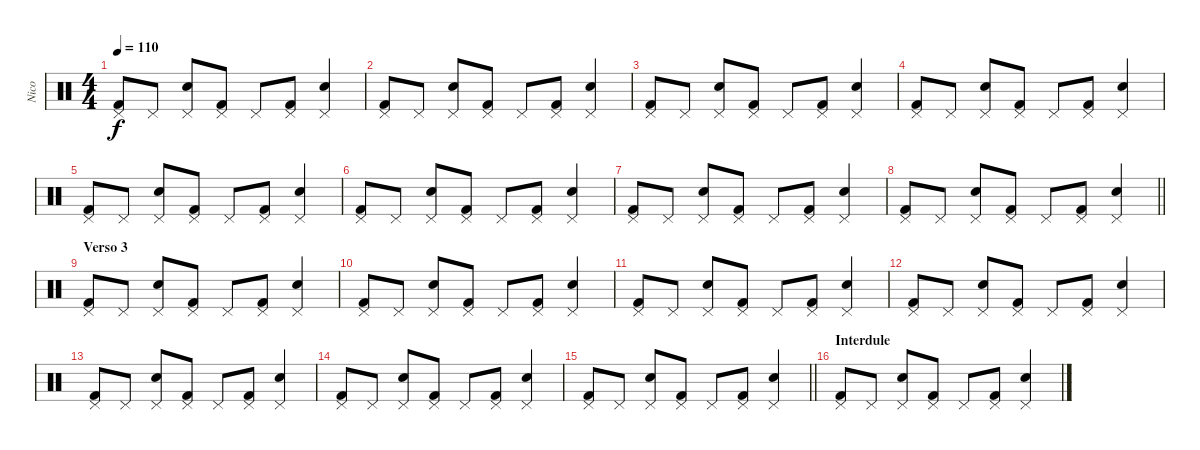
\track ("Nico" "Nico") {instrument percussion}
\staff {score}
\articulation defaults
\ts (4 4)
\tempo 110
\clef neutral
\ks c
("Pedal Hi-Hat (hit)" "Kick (hit) 2").8{dy f} "Pedal Hi-Hat (hit)".8 ("Pedal Hi-Hat (hit)" "Snare (hit) 2").8 ("Pedal Hi-Hat (hit)" "Kick (hit) 2").8 "Pedal Hi-Hat (hit)".8 ("Pedal Hi-Hat (hit)" "Kick (hit) 2").8 ("Pedal Hi-Hat (hit)" "Snare (hit) 2").4 |
("Pedal Hi-Hat (hit)" "Kick (hit) 2").8 "Pedal Hi-Hat (hit)".8 ("Pedal Hi-Hat (hit)" "Snare (hit) 2").8 ("Pedal Hi-Hat (hit)" "Kick (hit) 2").8 "Pedal Hi-Hat (hit)".8 ("Pedal Hi-Hat (hit)" "Kick (hit) 2").8 ("Pedal Hi-Hat (hit)" "Snare (hit) 2").4 |
("Pedal Hi-Hat (hit)" "Kick (hit) 2").8 "Pedal Hi-Hat (hit)".8 ("Pedal Hi-Hat (hit)" "Snare (hit) 2").8 ("Pedal Hi-Hat (hit)" "Kick (hit) 2").8 "Pedal Hi-Hat (hit)".8 ("Pedal Hi-Hat (hit)" "Kick (hit) 2").8 ("Pedal Hi-Hat (hit)" "Snare (hit) 2").4 |
("Pedal Hi-Hat (hit)" "Kick (hit) 2").8 "Pedal Hi-Hat (hit)".8 ("Pedal Hi-Hat (hit)" "Snare (hit) 2").8 ("Pedal Hi-Hat (hit)" "Kick (hit) 2").8 "Pedal Hi-Hat (hit)".8 ("Pedal Hi-Hat (hit)" "Kick (hit) 2").8 ("Pedal Hi-Hat (hit)" "Snare (hit) 2").4 |
("Pedal Hi-Hat (hit)" "Kick (hit) 2").8 "Pedal Hi-Hat (hit)".8 ("Pedal Hi-Hat (hit)" "Snare (hit) 2").8 ("Pedal Hi-Hat (hit)" "Kick (hit) 2").8 "Pedal Hi-Hat (hit)".8 ("Pedal Hi-Hat (hit)" "Kick (hit) 2").8 ("Pedal Hi-Hat (hit)" "Snare (hit) 2").4 |
("Pedal Hi-Hat (hit)" "Kick (hit) 2").8 "Pedal Hi-Hat (hit)".8 ("Pedal Hi-Hat (hit)" "Snare (hit) 2").8 ("Pedal Hi-Hat (hit)" "Kick (hit) 2").8 "Pedal Hi-Hat (hit)".8 ("Pedal Hi-Hat (hit)" "Kick (hit) 2").8 ("Pedal Hi-Hat (hit)" "Snare (hit) 2").4 |
("Pedal Hi-Hat (hit)" "Kick (hit) 2").8 "Pedal Hi-Hat (hit)".8 ("Pedal Hi-Hat (hit)" "Snare (hit) 2").8 ("Pedal Hi-Hat (hit)" "Kick (hit) 2").8 "Pedal Hi-Hat (hit)".8 ("Pedal Hi-Hat (hit)" "Kick (hit) 2").8 ("Pedal Hi-Hat (hit)" "Snare (hit) 2").4 |
\barLineRight lightlight
("Pedal Hi-Hat (hit)" "Kick (hit) 2").8 "Pedal Hi-Hat (hit)".8 ("Pedal Hi-Hat (hit)" "Snare (hit) 2").8 ("Pedal Hi-Hat (hit)" "Kick (hit) 2").8 "Pedal Hi-Hat (hit)".8 ("Pedal Hi-Hat (hit)" "Kick (hit) 2").8 ("Pedal Hi-Hat (hit)" "Snare (hit) 2").4 |
\section ("" "Verso 3")
("Pedal Hi-Hat (hit)" "Kick (hit) 2").8 "Pedal Hi-Hat (hit)".8 ("Pedal Hi-Hat (hit)" "Snare (hit) 2").8 ("Pedal Hi-Hat (hit)" "Kick (hit) 2").8 "Pedal Hi-Hat (hit)".8 ("Pedal Hi-Hat (hit)" "Kick (hit) 2").8 ("Pedal Hi-Hat (hit)" "Snare (hit) 2").4 |
("Pedal Hi-Hat (hit)" "Kick (hit) 2").8 "Pedal Hi-Hat (hit)".8 ("Pedal Hi-Hat (hit)" "Snare (hit) 2").8 ("Pedal Hi-Hat (hit)" "Kick (hit) 2").8 "Pedal Hi-Hat (hit)".8 ("Pedal Hi-Hat (hit)" "Kick (hit) 2").8 ("Pedal Hi-Hat (hit)" "Snare (hit) 2").4 |
("Pedal Hi-Hat (hit)" "Kick (hit) 2").8 "Pedal Hi-Hat (hit)".8 ("Pedal Hi-Hat (hit)" "Snare (hit) 2").8 ("Pedal Hi-Hat (hit)" "Kick (hit) 2").8 "Pedal Hi-Hat (hit)".8 ("Pedal Hi-Hat (hit)" "Kick (hit) 2").8 ("Pedal Hi-Hat (hit)" "Snare (hit) 2").4 |
("Pedal Hi-Hat (hit)" "Kick (hit) 2").8 "Pedal Hi-Hat (hit)".8 ("Pedal Hi-Hat (hit)" "Snare (hit) 2").8 ("Pedal Hi-Hat (hit)" "Kick (hit) 2").8 "Pedal Hi-Hat (hit)".8 ("Pedal Hi-Hat (hit)" "Kick (hit) 2").8 ("Pedal Hi-Hat (hit)" "Snare (hit) 2").4 |
("Pedal Hi-Hat (hit)" "Kick (hit) 2").8 "Pedal Hi-Hat (hit)".8 ("Pedal Hi-Hat (hit)" "Snare (hit) 2").8 ("Pedal Hi-Hat (hit)" "Kick (hit) 2").8 "Pedal Hi-Hat (hit)".8 ("Pedal Hi-Hat (hit)" "Kick (hit) 2").8 ("Pedal Hi-Hat (hit)" "Snare (hit) 2").4 |
("Pedal Hi-Hat (hit)" "Kick (hit) 2").8 "Pedal Hi-Hat (hit)".8 ("Pedal Hi-Hat (hit)" "Snare (hit) 2").8 ("Pedal Hi-Hat (hit)" "Kick (hit) 2").8 "Pedal Hi-Hat (hit)".8 ("Pedal Hi-Hat (hit)" "Kick (hit) 2").8 ("Pedal Hi-Hat (hit)" "Snare (hit) 2").4 |
\barLineRight lightlight
("Pedal Hi-Hat (hit)" "Kick (hit) 2").8 "Pedal Hi-Hat (hit)".8 ("Pedal Hi-Hat (hit)" "Snare (hit) 2").8 ("Pedal Hi-Hat (hit)" "Kick (hit) 2").8 "Pedal Hi-Hat (hit)".8 ("Pedal Hi-Hat (hit)" "Kick (hit) 2").8 ("Pedal Hi-Hat (hit)" "Snare (hit) 2").4 |
\section ("" "Interdule")
("Pedal Hi-Hat (hit)" "Kick (hit) 2").8 "Pedal Hi-Hat (hit)".8 ("Pedal Hi-Hat (hit)" "Snare (hit) 2").8 ("Pedal Hi-Hat (hit)" "Kick (hit) 2").8 "Pedal Hi-Hat (hit)".8 ("Pedal Hi-Hat (hit)" "Kick (hit) 2").8 ("Pedal Hi-Hat (hit)" "Snare (hit) 2").4
